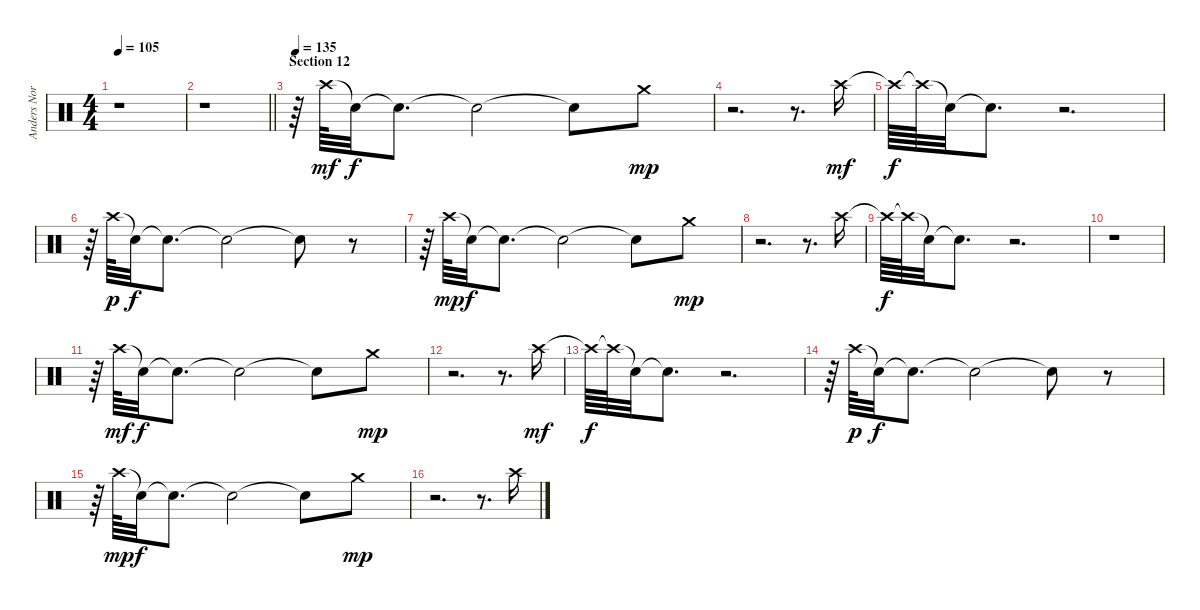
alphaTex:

\track ("Anders Nordin" "Anders Nor") {instrument percussion}
\staff {score}
\articulation defaults
\ts (4 4)
\tempo 105
\clef neutral
\ks c
r.1{dy f} |
\barLineRight lightlight
r.1 |
\section ("" "Section 12")
\tempo 135
r.64{volume 0} "Crash high (hit)".64{dy mf volume 16} "Snare (hit)"{t}.32{dy f} "Snare (hit)"{t}.8{d} "Snare (hit)"{t}.2 "Snare (hit)"{t}.8{volume 0} "Crash medium (hit)".8{dy mp volume 16} |
r.2{d} r.8{d volume 0} "Crash high (hit)".16{dy mf volume 16} |
"Crash high (hit)"{t}.64{dy f} "Crash high (hit)"{t}.64 "Snare (hit)"{t}.32 "Snare (hit)"{t}.8{d} r.2{d} |
r.64{volume 0} "Crash high (hit)".64{dy p volume 16} "Snare (hit)"{t}.32{dy f} "Snare (hit)"{t}.8{d} "Snare (hit)"{t}.2 "Snare (hit)"{t}.8{volume 0} r.8 |
r.64{volume 0} "Crash high (hit)".64{dy mp volume 16} "Snare (hit)"{t}.32{dy f} "Snare (hit)"{t}.8{d} "Snare (hit)"{t}.2 "Snare (hit)"{t}.8{volume 0} "Crash medium (hit)".8{dy mp volume 16} |
r.2{d} r.8{d volume 0} "Crash high (hit)".16{volume 16} |
"Crash high (hit)"{t}.64{dy f} "Crash high (hit)"{t}.64 "Snare (hit)"{t}.32 "Snare (hit)"{t}.8{d} r.2{d} |
r.1 |
r.64{volume 0} "Crash high (hit)".64{dy mf volume 16} "Snare (hit)"{t}.32{dy f} "Snare (hit)"{t}.8{d} "Snare (hit)"{t}.2 "Snare (hit)"{t}.8{volume 0} "Crash medium (hit)".8{dy mp volume 16} |
r.2{d} r.8{d volume 0} "Crash high (hit)".16{dy mf volume 16} |
"Crash high (hit)"{t}.64{dy f} "Crash high (hit)"{t}.64 "Snare (hit)"{t}.32 "Snare (hit)"{t}.8{d} r.2{d} |
r.64{volume 0} "Crash high (hit)".64{dy p volume 16} "Snare (hit)"{t}.32{dy f} "Snare (hit)"{t}.8{d} "Snare (hit)"{t}.2 "Snare (hit)"{t}.8{volume 0} r.8 |
r.64{volume 0} "Crash high (hit)".64{dy mp volume 16} "Snare (hit)"{t}.32{dy f} "Snare (hit)"{t}.8{d} "Snare (hit)"{t}.2 "Snare (hit)"{t}.8{volume 0} "Crash medium (hit)".8{dy mp volume 16} |
r.2{d} r.8{d volume 0} "Crash high (hit)".16{volume 16}
